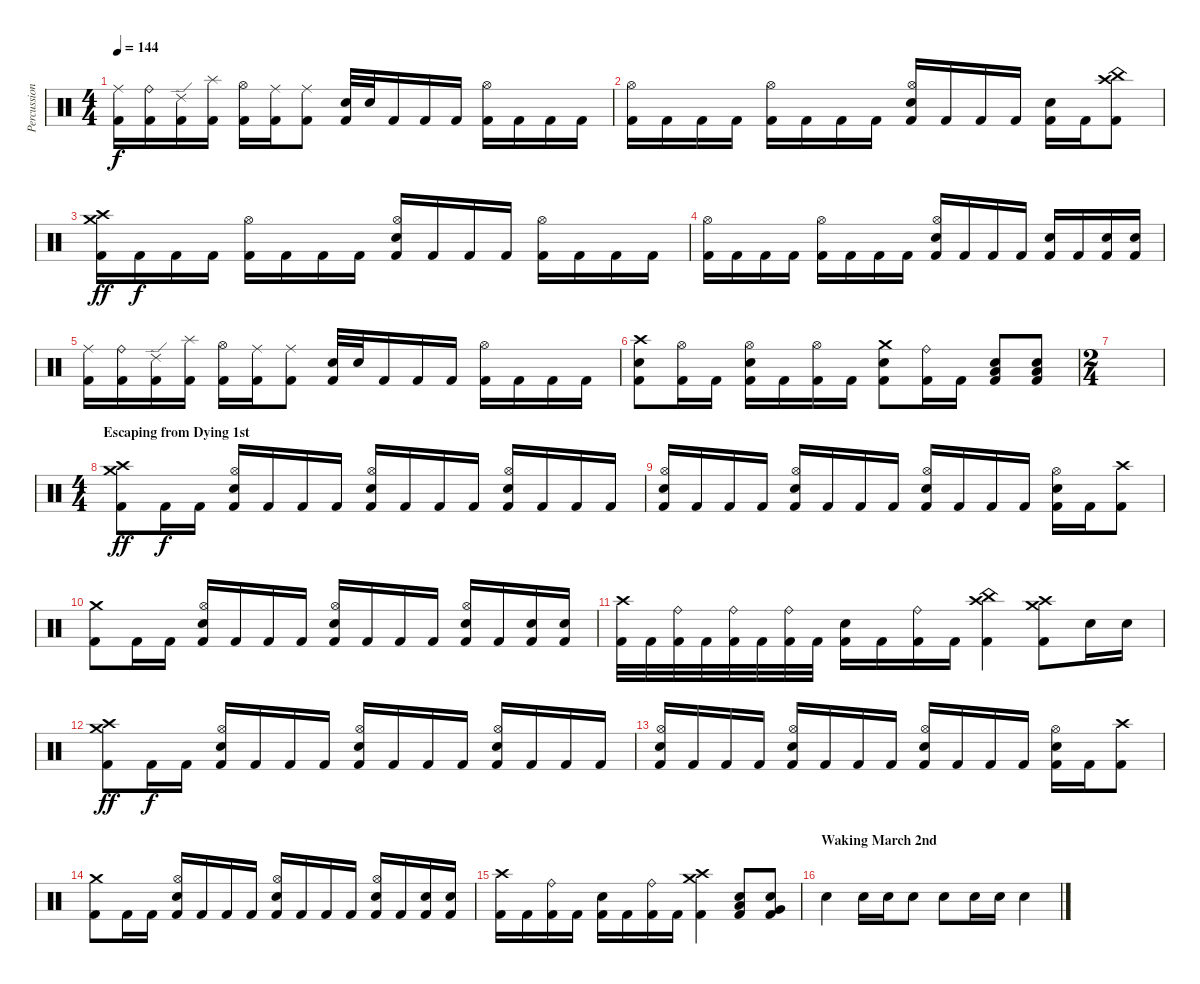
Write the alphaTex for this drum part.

\track ("Percussion" "Percussion") {instrument percussion}
\staff {score}
\articulation defaults
\ts (4 4)
\tempo 144
\clef neutral
\ks c
("Ride (middle)" "Kick (hit) 2").16{dy f} ("Ride (bell)" "Kick (hit) 2").16 ("Ride (edge) 2" "Kick (hit) 2").16 ("Splash (hit)" "Kick (hit) 2").16 ("Hi-Hat (open)" "Kick (hit) 2").16 ("Ride (middle)" "Kick (hit) 2").16 ("Ride (middle)" "Kick (hit) 2").8 ("Electric Snare (hit)" "Kick (hit) 2").32 "Electric Snare (hit)".32 "Kick (hit) 2".16 "Kick (hit) 2".16 "Kick (hit) 2".16 ("Hi-Hat (open)" "Kick (hit) 2").16 "Kick (hit) 2".16 "Kick (hit) 2".16 "Kick (hit) 2".16 |
("Hi-Hat (open)" "Kick (hit) 2").16 "Kick (hit) 2".16 "Kick (hit) 2".16 "Kick (hit) 2".16 ("Hi-Hat (open)" "Kick (hit) 2").16 "Kick (hit) 2".16 "Kick (hit) 2".16 "Kick (hit) 2".16 ("Hi-Hat (open)" "Electric Snare (hit)" "Kick (hit) 2").16 "Kick (hit) 2".16 "Kick (hit) 2".16 "Kick (hit) 2".16 ("Electric Snare (hit)" "Kick (hit) 2").16 "Kick (hit) 2".16 ("Crash high (hit)" "China (hit)" "Kick (hit) 2").8 |
("Crash high (hit)" "Crash medium (hit)" "Kick (hit) 2").16{dy ff} "Kick (hit) 2".16{dy f} "Kick (hit) 2".16 "Kick (hit) 2".16 ("Hi-Hat (open)" "Kick (hit) 2").16 "Kick (hit) 2".16 "Kick (hit) 2".16 "Kick (hit) 2".16 ("Hi-Hat (open)" "Electric Snare (hit)" "Kick (hit) 2").16 "Kick (hit) 2".16 "Kick (hit) 2".16 "Kick (hit) 2".16 ("Hi-Hat (open)" "Kick (hit) 2").16 "Kick (hit) 2".16 "Kick (hit) 2".16 "Kick (hit) 2".16 |
("Hi-Hat (open)" "Kick (hit) 2").16 "Kick (hit) 2".16 "Kick (hit) 2".16 "Kick (hit) 2".16 ("Hi-Hat (open)" "Kick (hit) 2").16 "Kick (hit) 2".16 "Kick (hit) 2".16 "Kick (hit) 2".16 ("Hi-Hat (open)" "Electric Snare (hit)" "Kick (hit) 2").16 "Kick (hit) 2".16 "Kick (hit) 2".16 "Kick (hit) 2".16 ("Electric Snare (hit)" "Kick (hit) 2").16 "Kick (hit) 2".16 ("Electric Snare (hit)" "Kick (hit) 2").16 ("Electric Snare (hit)" "Kick (hit) 2").16 |
("Ride (middle)" "Kick (hit) 2").16 ("Ride (bell)" "Kick (hit) 2").16 ("Ride (edge) 2" "Kick (hit) 2").16 ("Splash (hit)" "Kick (hit) 2").16 ("Hi-Hat (open)" "Kick (hit) 2").16 ("Ride (middle)" "Kick (hit) 2").16 ("Ride (middle)" "Kick (hit) 2").8 ("Electric Snare (hit)" "Kick (hit) 2").32 "Electric Snare (hit)".32 "Kick (hit) 2".16 "Kick (hit) 2".16 "Kick (hit) 2".16 ("Hi-Hat (open)" "Kick (hit) 2").16 "Kick (hit) 2".16 "Kick (hit) 2".16 "Kick (hit) 2".16 |
("Crash high (hit)" "Electric Snare (hit)" "Kick (hit) 2").8 ("Hi-Hat (open)" "Kick (hit) 2").16 "Kick (hit) 2".16 ("Hi-Hat (open)" "Electric Snare (hit)" "Kick (hit) 2").16 "Kick (hit) 2".16 ("Hi-Hat (open)" "Kick (hit) 2").16 "Kick (hit) 2".16 ("Crash medium (hit)" "Electric Snare (hit)" "Kick (hit) 2").8 ("Ride (bell)" "Kick (hit) 2").16 "Kick (hit) 2".16 ("Low Tom (hit)" "Electric Snare (hit)" "Kick (hit) 2").8 ("Low Tom (hit)" "Electric Snare (hit)" "Kick (hit) 2").8 |
\ts (2 4)
|
\ts (4 4)
\section ("" "Escaping from Dying 1st")
("Crash medium (hit)" "Crash high (hit)" "Kick (hit) 2").8{dy ff} "Kick (hit) 2".16{dy f} "Kick (hit) 2".16 ("Hi-Hat (open)" "Electric Snare (hit)" "Kick (hit) 2").16 "Kick (hit) 2".16 "Kick (hit) 2".16 "Kick (hit) 2".16 ("Hi-Hat (open)" "Electric Snare (hit)" "Kick (hit) 2").16 "Kick (hit) 2".16 "Kick (hit) 2".16 "Kick (hit) 2".16 ("Hi-Hat (open)" "Electric Snare (hit)" "Kick (hit) 2").16 "Kick (hit) 2".16 "Kick (hit) 2".16 "Kick (hit) 2".16 |
("Hi-Hat (open)" "Electric Snare (hit)" "Kick (hit) 2").16 "Kick (hit) 2".16 "Kick (hit) 2".16 "Kick (hit) 2".16 ("Hi-Hat (open)" "Electric Snare (hit)" "Kick (hit) 2").16 "Kick (hit) 2".16 "Kick (hit) 2".16 "Kick (hit) 2".16 ("Hi-Hat (open)" "Electric Snare (hit)" "Kick (hit) 2").16 "Kick (hit) 2".16 "Kick (hit) 2".16 "Kick (hit) 2".16 ("Hi-Hat (open)" "Electric Snare (hit)" "Kick (hit) 2").16 "Kick (hit) 2".16 ("Crash high (hit)" "Kick (hit) 2").8 |
("Crash medium (hit)" "Kick (hit) 2").8 "Kick (hit) 2".16 "Kick (hit) 2".16 ("Hi-Hat (open)" "Electric Snare (hit)" "Kick (hit) 2").16 "Kick (hit) 2".16 "Kick (hit) 2".16 "Kick (hit) 2".16 ("Hi-Hat (open)" "Electric Snare (hit)" "Kick (hit) 2").16 "Kick (hit) 2".16 "Kick (hit) 2".16 "Kick (hit) 2".16 ("Hi-Hat (open)" "Electric Snare (hit)" "Kick (hit) 2").16 "Kick (hit) 2".16 ("Electric Snare (hit)" "Kick (hit) 2").16 ("Electric Snare (hit)" "Kick (hit) 2").16 |
("Crash high (hit)" "Kick (hit) 2").32 "Kick (hit) 2".32 ("Ride (bell)" "Kick (hit) 2").32 "Kick (hit) 2".32 ("Ride (bell)" "Kick (hit) 2").32 "Kick (hit) 2".32 ("Ride (bell)" "Kick (hit) 2").32 "Kick (hit) 2".32 ("Electric Snare (hit)" "Kick (hit) 2").16 "Kick (hit) 2".16 ("Ride (bell)" "Kick (hit) 2").16 "Kick (hit) 2".16 ("China (hit)" "Crash high (hit)" "Kick (hit) 2").4 ("Crash medium (hit)" "Crash high (hit)" "Kick (hit) 2").8 "Electric Snare (hit)".16 "Electric Snare (hit)".16 |
("Crash medium (hit)" "Crash high (hit)" "Kick (hit) 2").8{dy ff} "Kick (hit) 2".16{dy f} "Kick (hit) 2".16 ("Hi-Hat (open)" "Electric Snare (hit)" "Kick (hit) 2").16 "Kick (hit) 2".16 "Kick (hit) 2".16 "Kick (hit) 2".16 ("Hi-Hat (open)" "Electric Snare (hit)" "Kick (hit) 2").16 "Kick (hit) 2".16 "Kick (hit) 2".16 "Kick (hit) 2".16 ("Hi-Hat (open)" "Electric Snare (hit)" "Kick (hit) 2").16 "Kick (hit) 2".16 "Kick (hit) 2".16 "Kick (hit) 2".16 |
("Hi-Hat (open)" "Electric Snare (hit)" "Kick (hit) 2").16 "Kick (hit) 2".16 "Kick (hit) 2".16 "Kick (hit) 2".16 ("Hi-Hat (open)" "Electric Snare (hit)" "Kick (hit) 2").16 "Kick (hit) 2".16 "Kick (hit) 2".16 "Kick (hit) 2".16 ("Hi-Hat (open)" "Electric Snare (hit)" "Kick (hit) 2").16 "Kick (hit) 2".16 "Kick (hit) 2".16 "Kick (hit) 2".16 ("Hi-Hat (open)" "Electric Snare (hit)" "Kick (hit) 2").16 "Kick (hit) 2".16 ("Crash high (hit)" "Kick (hit) 2").8 |
("Crash medium (hit)" "Kick (hit) 2").8 "Kick (hit) 2".16 "Kick (hit) 2".16 ("Hi-Hat (open)" "Electric Snare (hit)" "Kick (hit) 2").16 "Kick (hit) 2".16 "Kick (hit) 2".16 "Kick (hit) 2".16 ("Hi-Hat (open)" "Electric Snare (hit)" "Kick (hit) 2").16 "Kick (hit) 2".16 "Kick (hit) 2".16 "Kick (hit) 2".16 ("Hi-Hat (open)" "Electric Snare (hit)" "Kick (hit) 2").16 "Kick (hit) 2".16 ("Electric Snare (hit)" "Kick (hit) 2").16 ("Electric Snare (hit)" "Kick (hit) 2").16 |
("Crash high (hit)" "Kick (hit) 2").16 "Kick (hit) 2".16 ("Ride (bell)" "Kick (hit) 2").16 "Kick (hit) 2".16 ("Electric Snare (hit)" "Kick (hit) 2").16 "Kick (hit) 2".16 ("Ride (bell)" "Kick (hit) 2").16 "Kick (hit) 2".16 ("Crash medium (hit)" "Crash high (hit)" "Kick (hit) 2").4 ("Low Tom (hit)" "Electric Snare (hit)" "Kick (hit) 2").8 ("Very Low Tom (hit)" "Electric Snare (hit)" "Kick (hit) 2").8 |
\section ("" "Waking March 2nd")
"Electric Snare (hit)".4 "Electric Snare (hit)".16 "Electric Snare (hit)".16 "Electric Snare (hit)".8 "Electric Snare (hit)".8 "Electric Snare (hit)".16 "Electric Snare (hit)".16 "Electric Snare (hit)".4
